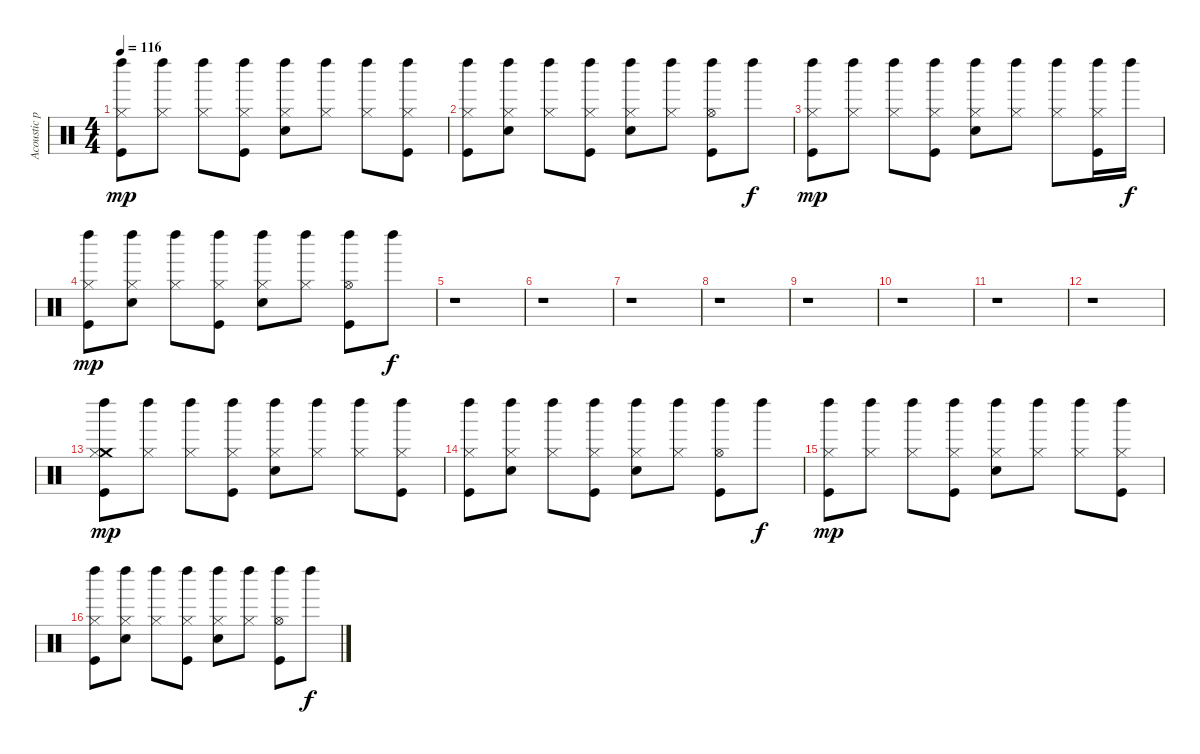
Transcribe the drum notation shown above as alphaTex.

\track ("Acoustic part Drums" "Acoustic p") {instrument percussion}
\staff {score}
\articulation defaults
\ts (4 4)
\tempo 116
\clef neutral
\ks c
("Kick (hit)" "Hi-Hat (closed)" "Left Maraca (hit)").8{dy mp} ("Hi-Hat (closed)" "Left Maraca (hit)").8 ("Hi-Hat (closed)" "Left Maraca (hit)").8 ("Kick (hit)" "Hi-Hat (closed)" "Left Maraca (hit)").8 ("Hi-Hat (closed)" "Electric Snare (hit)" "Left Maraca (hit)").8 ("Hi-Hat (closed)" "Left Maraca (hit)").8 ("Hi-Hat (closed)" "Left Maraca (hit)").8 ("Kick (hit)" "Hi-Hat (closed)" "Left Maraca (hit)").8 |
("Kick (hit)" "Hi-Hat (closed)" "Left Maraca (hit)").8 ("Hi-Hat (closed)" "Electric Snare (hit)" "Left Maraca (hit)").8 ("Hi-Hat (closed)" "Left Maraca (hit)").8 ("Kick (hit)" "Hi-Hat (closed)" "Left Maraca (hit)").8 ("Hi-Hat (closed)" "Electric Snare (hit)" "Left Maraca (hit)").8 ("Hi-Hat (closed)" "Left Maraca (hit)").8 ("Kick (hit)" "Hi-Hat (open)" "Left Maraca (hit)").8 "Left Maraca (hit)".8{dy f} |
("Kick (hit)" "Hi-Hat (closed)" "Left Maraca (hit)").8{dy mp} ("Hi-Hat (closed)" "Left Maraca (hit)").8 ("Hi-Hat (closed)" "Left Maraca (hit)").8 ("Kick (hit)" "Hi-Hat (closed)" "Left Maraca (hit)").8 ("Hi-Hat (closed)" "Electric Snare (hit)" "Left Maraca (hit)").8 ("Hi-Hat (closed)" "Left Maraca (hit)").8 ("Hi-Hat (closed)" "Left Maraca (hit)").8 ("Kick (hit)" "Hi-Hat (closed)" "Left Maraca (hit)").16 "Left Maraca (hit)".16{dy f} |
("Kick (hit)" "Hi-Hat (closed)" "Left Maraca (hit)").8{dy mp} ("Hi-Hat (closed)" "Electric Snare (hit)" "Left Maraca (hit)").8 ("Hi-Hat (closed)" "Left Maraca (hit)").8 ("Kick (hit)" "Hi-Hat (closed)" "Left Maraca (hit)").8 ("Hi-Hat (closed)" "Electric Snare (hit)" "Left Maraca (hit)").8 ("Hi-Hat (closed)" "Left Maraca (hit)").8 ("Kick (hit)" "Hi-Hat (open)" "Left Maraca (hit)").8 "Left Maraca (hit)".8{dy f} |
r.1 |
r.1 |
r.1 |
r.1 |
r.1 |
r.1 |
r.1 |
r.1 |
("Kick (hit)" "Crash medium (hit)" "Hi-Hat (closed)" "Left Maraca (hit)").8{dy mp volume 9} ("Hi-Hat (closed)" "Left Maraca (hit)").8 ("Hi-Hat (closed)" "Left Maraca (hit)").8 ("Kick (hit)" "Hi-Hat (closed)" "Left Maraca (hit)").8 ("Hi-Hat (closed)" "Electric Snare (hit)" "Left Maraca (hit)").8 ("Hi-Hat (closed)" "Left Maraca (hit)").8 ("Hi-Hat (closed)" "Left Maraca (hit)").8 ("Kick (hit)" "Hi-Hat (closed)" "Left Maraca (hit)").8 |
("Kick (hit)" "Hi-Hat (closed)" "Left Maraca (hit)").8 ("Hi-Hat (closed)" "Electric Snare (hit)" "Left Maraca (hit)").8 ("Hi-Hat (closed)" "Left Maraca (hit)").8 ("Kick (hit)" "Hi-Hat (closed)" "Left Maraca (hit)").8 ("Hi-Hat (closed)" "Electric Snare (hit)" "Left Maraca (hit)").8 ("Hi-Hat (closed)" "Left Maraca (hit)").8 ("Kick (hit)" "Hi-Hat (open)" "Left Maraca (hit)").8 "Left Maraca (hit)".8{dy f} |
("Kick (hit)" "Hi-Hat (closed)" "Left Maraca (hit)").8{dy mp} ("Hi-Hat (closed)" "Left Maraca (hit)").8 ("Hi-Hat (closed)" "Left Maraca (hit)").8 ("Kick (hit)" "Hi-Hat (closed)" "Left Maraca (hit)").8 ("Hi-Hat (closed)" "Electric Snare (hit)" "Left Maraca (hit)").8 ("Hi-Hat (closed)" "Left Maraca (hit)").8 ("Hi-Hat (closed)" "Left Maraca (hit)").8 ("Kick (hit)" "Hi-Hat (closed)" "Left Maraca (hit)").8 |
("Kick (hit)" "Hi-Hat (closed)" "Left Maraca (hit)").8 ("Hi-Hat (closed)" "Electric Snare (hit)" "Left Maraca (hit)").8 ("Hi-Hat (closed)" "Left Maraca (hit)").8 ("Kick (hit)" "Hi-Hat (closed)" "Left Maraca (hit)").8 ("Hi-Hat (closed)" "Electric Snare (hit)" "Left Maraca (hit)").8 ("Hi-Hat (closed)" "Left Maraca (hit)").8 ("Kick (hit)" "Hi-Hat (open)" "Left Maraca (hit)").8 "Left Maraca (hit)".8{dy f}
